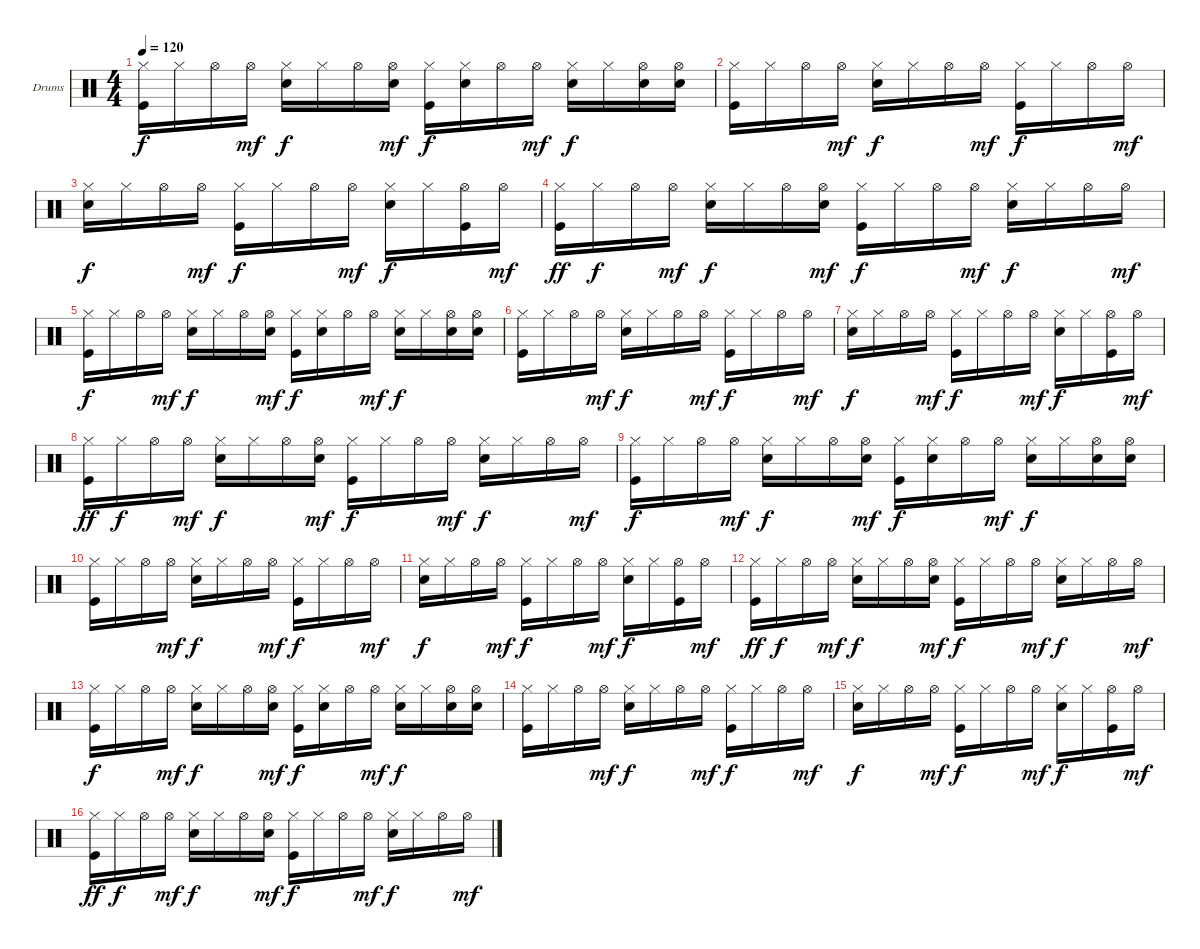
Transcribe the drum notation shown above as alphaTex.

\defaultSystemsLayout 4
\bracketExtendMode groupsimilarinstruments
\firstSystemTrackNameOrientation horizontal
\otherSystemsTrackNameOrientation horizontal
\track ("Г.Гурьянов-Ударные" "Drums") {instrument percussion}
\staff {score}
\articulation defaults
\ts (4 4)
\tempo 120
\clef neutral
\ks c
("Kick (hit)" "Hi-Hat (closed)").16{dy f} "Hi-Hat (closed)".16 "Hi-Hat (open)".16 "Hi-Hat (open)".16{dy mf} ("Snare (hit) 2" "Hi-Hat (closed)").16{dy f} "Hi-Hat (closed)".16 "Hi-Hat (open)".16 ("Hi-Hat (open)" "Snare (hit) 2").16{dy mf} ("Hi-Hat (closed)" "Kick (hit)").16{dy f} ("Snare (hit) 2" "Hi-Hat (closed)").16 "Hi-Hat (open)".16 "Hi-Hat (open)".16{dy mf} ("Snare (hit) 2" "Hi-Hat (closed)").16{dy f} "Hi-Hat (closed)".16 ("Snare (hit) 2" "Hi-Hat (open)").16 ("Snare (hit) 2" "Hi-Hat (open)").16 |
("Hi-Hat (closed)" "Kick (hit)").16 "Hi-Hat (closed)".16 "Hi-Hat (open)".16 "Hi-Hat (open)".16{dy mf} ("Snare (hit) 2" "Hi-Hat (closed)").16{dy f} "Hi-Hat (closed)".16 "Hi-Hat (open)".16 "Hi-Hat (open)".16{dy mf} ("Kick (hit)" "Hi-Hat (closed)").16{dy f} "Hi-Hat (closed)".16 "Hi-Hat (open)".16 "Hi-Hat (open)".16{dy mf} |
("Snare (hit) 2" "Hi-Hat (closed)").16{dy f} "Hi-Hat (closed)".16 "Hi-Hat (open)".16 "Hi-Hat (open)".16{dy mf} ("Kick (hit)" "Hi-Hat (closed)").16{dy f} "Hi-Hat (closed)".16 "Hi-Hat (open)".16 "Hi-Hat (open)".16{dy mf} ("Snare (hit) 2" "Hi-Hat (closed)").16{dy f} "Hi-Hat (closed)".16 ("Kick (hit)" "Hi-Hat (open)").16 "Hi-Hat (open)".16{dy mf} |
("Kick (hit)" "Hi-Hat (closed)").16{dy ff} "Hi-Hat (closed)".16{dy f} "Hi-Hat (open)".16 "Hi-Hat (open)".16{dy mf} ("Snare (hit) 2" "Hi-Hat (closed)").16{dy f} "Hi-Hat (closed)".16 "Hi-Hat (open)".16 ("Hi-Hat (open)" "Snare (hit) 2").16{dy mf} ("Hi-Hat (closed)" "Kick (hit)").16{dy f} "Hi-Hat (closed)".16 "Hi-Hat (open)".16 "Hi-Hat (open)".16{dy mf} ("Snare (hit) 2" "Hi-Hat (closed)").16{dy f} "Hi-Hat (closed)".16 "Hi-Hat (open)".16 "Hi-Hat (open)".16{dy mf} |
("Kick (hit)" "Hi-Hat (closed)").16{dy f} "Hi-Hat (closed)".16 "Hi-Hat (open)".16 "Hi-Hat (open)".16{dy mf} ("Snare (hit) 2" "Hi-Hat (closed)").16{dy f} "Hi-Hat (closed)".16 "Hi-Hat (open)".16 ("Hi-Hat (open)" "Snare (hit) 2").16{dy mf} ("Hi-Hat (closed)" "Kick (hit)").16{dy f} ("Snare (hit) 2" "Hi-Hat (closed)").16 "Hi-Hat (open)".16 "Hi-Hat (open)".16{dy mf} ("Snare (hit) 2" "Hi-Hat (closed)").16{dy f} "Hi-Hat (closed)".16 ("Snare (hit) 2" "Hi-Hat (open)").16 ("Snare (hit) 2" "Hi-Hat (open)").16 |
("Hi-Hat (closed)" "Kick (hit)").16 "Hi-Hat (closed)".16 "Hi-Hat (open)".16 "Hi-Hat (open)".16{dy mf} ("Snare (hit) 2" "Hi-Hat (closed)").16{dy f} "Hi-Hat (closed)".16 "Hi-Hat (open)".16 "Hi-Hat (open)".16{dy mf} ("Kick (hit)" "Hi-Hat (closed)").16{dy f} "Hi-Hat (closed)".16 "Hi-Hat (open)".16 "Hi-Hat (open)".16{dy mf} |
("Snare (hit) 2" "Hi-Hat (closed)").16{dy f} "Hi-Hat (closed)".16 "Hi-Hat (open)".16 "Hi-Hat (open)".16{dy mf} ("Kick (hit)" "Hi-Hat (closed)").16{dy f} "Hi-Hat (closed)".16 "Hi-Hat (open)".16 "Hi-Hat (open)".16{dy mf} ("Snare (hit) 2" "Hi-Hat (closed)").16{dy f} "Hi-Hat (closed)".16 ("Kick (hit)" "Hi-Hat (open)").16 "Hi-Hat (open)".16{dy mf} |
("Kick (hit)" "Hi-Hat (closed)").16{dy ff} "Hi-Hat (closed)".16{dy f} "Hi-Hat (open)".16 "Hi-Hat (open)".16{dy mf} ("Snare (hit) 2" "Hi-Hat (closed)").16{dy f} "Hi-Hat (closed)".16 "Hi-Hat (open)".16 ("Hi-Hat (open)" "Snare (hit) 2").16{dy mf} ("Hi-Hat (closed)" "Kick (hit)").16{dy f} "Hi-Hat (closed)".16 "Hi-Hat (open)".16 "Hi-Hat (open)".16{dy mf} ("Snare (hit) 2" "Hi-Hat (closed)").16{dy f} "Hi-Hat (closed)".16 "Hi-Hat (open)".16 "Hi-Hat (open)".16{dy mf} |
("Kick (hit)" "Hi-Hat (closed)").16{dy f} "Hi-Hat (closed)".16 "Hi-Hat (open)".16 "Hi-Hat (open)".16{dy mf} ("Snare (hit) 2" "Hi-Hat (closed)").16{dy f} "Hi-Hat (closed)".16 "Hi-Hat (open)".16 ("Hi-Hat (open)" "Snare (hit) 2").16{dy mf} ("Hi-Hat (closed)" "Kick (hit)").16{dy f} ("Snare (hit) 2" "Hi-Hat (closed)").16 "Hi-Hat (open)".16 "Hi-Hat (open)".16{dy mf} ("Snare (hit) 2" "Hi-Hat (closed)").16{dy f} "Hi-Hat (closed)".16 ("Snare (hit) 2" "Hi-Hat (open)").16 ("Snare (hit) 2" "Hi-Hat (open)").16 |
("Hi-Hat (closed)" "Kick (hit)").16 "Hi-Hat (closed)".16 "Hi-Hat (open)".16 "Hi-Hat (open)".16{dy mf} ("Snare (hit) 2" "Hi-Hat (closed)").16{dy f} "Hi-Hat (closed)".16 "Hi-Hat (open)".16 "Hi-Hat (open)".16{dy mf} ("Kick (hit)" "Hi-Hat (closed)").16{dy f} "Hi-Hat (closed)".16 "Hi-Hat (open)".16 "Hi-Hat (open)".16{dy mf} |
("Snare (hit) 2" "Hi-Hat (closed)").16{dy f} "Hi-Hat (closed)".16 "Hi-Hat (open)".16 "Hi-Hat (open)".16{dy mf} ("Kick (hit)" "Hi-Hat (closed)").16{dy f} "Hi-Hat (closed)".16 "Hi-Hat (open)".16 "Hi-Hat (open)".16{dy mf} ("Snare (hit) 2" "Hi-Hat (closed)").16{dy f} "Hi-Hat (closed)".16 ("Kick (hit)" "Hi-Hat (open)").16 "Hi-Hat (open)".16{dy mf} |
("Kick (hit)" "Hi-Hat (closed)").16{dy ff} "Hi-Hat (closed)".16{dy f} "Hi-Hat (open)".16 "Hi-Hat (open)".16{dy mf} ("Snare (hit) 2" "Hi-Hat (closed)").16{dy f} "Hi-Hat (closed)".16 "Hi-Hat (open)".16 ("Hi-Hat (open)" "Snare (hit) 2").16{dy mf} ("Hi-Hat (closed)" "Kick (hit)").16{dy f} "Hi-Hat (closed)".16 "Hi-Hat (open)".16 "Hi-Hat (open)".16{dy mf} ("Snare (hit) 2" "Hi-Hat (closed)").16{dy f} "Hi-Hat (closed)".16 "Hi-Hat (open)".16 "Hi-Hat (open)".16{dy mf} |
("Kick (hit)" "Hi-Hat (closed)").16{dy f} "Hi-Hat (closed)".16 "Hi-Hat (open)".16 "Hi-Hat (open)".16{dy mf} ("Snare (hit) 2" "Hi-Hat (closed)").16{dy f} "Hi-Hat (closed)".16 "Hi-Hat (open)".16 ("Hi-Hat (open)" "Snare (hit) 2").16{dy mf} ("Hi-Hat (closed)" "Kick (hit)").16{dy f} ("Snare (hit) 2" "Hi-Hat (closed)").16 "Hi-Hat (open)".16 "Hi-Hat (open)".16{dy mf} ("Snare (hit) 2" "Hi-Hat (closed)").16{dy f} "Hi-Hat (closed)".16 ("Snare (hit) 2" "Hi-Hat (open)").16 ("Snare (hit) 2" "Hi-Hat (open)").16 |
("Hi-Hat (closed)" "Kick (hit)").16 "Hi-Hat (closed)".16 "Hi-Hat (open)".16 "Hi-Hat (open)".16{dy mf} ("Snare (hit) 2" "Hi-Hat (closed)").16{dy f} "Hi-Hat (closed)".16 "Hi-Hat (open)".16 "Hi-Hat (open)".16{dy mf} ("Kick (hit)" "Hi-Hat (closed)").16{dy f} "Hi-Hat (closed)".16 "Hi-Hat (open)".16 "Hi-Hat (open)".16{dy mf} |
("Snare (hit) 2" "Hi-Hat (closed)").16{dy f} "Hi-Hat (closed)".16 "Hi-Hat (open)".16 "Hi-Hat (open)".16{dy mf} ("Kick (hit)" "Hi-Hat (closed)").16{dy f} "Hi-Hat (closed)".16 "Hi-Hat (open)".16 "Hi-Hat (open)".16{dy mf} ("Snare (hit) 2" "Hi-Hat (closed)").16{dy f} "Hi-Hat (closed)".16 ("Kick (hit)" "Hi-Hat (open)").16 "Hi-Hat (open)".16{dy mf} |
("Kick (hit)" "Hi-Hat (closed)").16{dy ff} "Hi-Hat (closed)".16{dy f} "Hi-Hat (open)".16 "Hi-Hat (open)".16{dy mf} ("Snare (hit) 2" "Hi-Hat (closed)").16{dy f} "Hi-Hat (closed)".16 "Hi-Hat (open)".16 ("Hi-Hat (open)" "Snare (hit) 2").16{dy mf} ("Hi-Hat (closed)" "Kick (hit)").16{dy f} "Hi-Hat (closed)".16 "Hi-Hat (open)".16 "Hi-Hat (open)".16{dy mf} ("Snare (hit) 2" "Hi-Hat (closed)").16{dy f} "Hi-Hat (closed)".16 "Hi-Hat (open)".16 "Hi-Hat (open)".16{dy mf}
